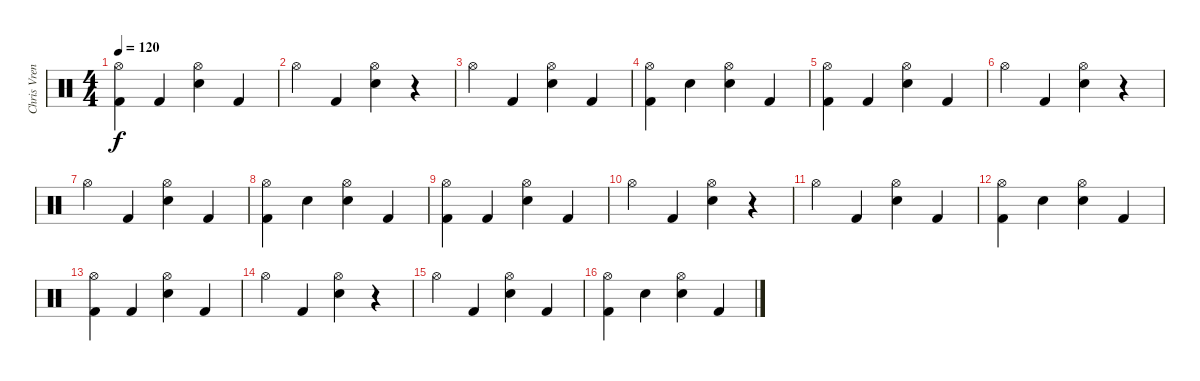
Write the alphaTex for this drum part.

\track ("Chris Vrenna" "Chris Vren") {instrument percussion}
\staff {score}
\articulation defaults
\ts (4 4)
\tempo 120
\clef neutral
\ks c
("Hi-Hat (open)" "Kick (hit) 2").4{dy f} "Kick (hit) 2".4 ("Hi-Hat (open)" "Snare (hit) 2").4 "Kick (hit) 2".4 |
"Hi-Hat (open)".4 "Kick (hit) 2".4 ("Hi-Hat (open)" "Snare (hit) 2").4 r.4 |
"Hi-Hat (open)".4 "Kick (hit) 2".4 ("Hi-Hat (open)" "Snare (hit) 2").4 "Kick (hit) 2".4 |
("Hi-Hat (open)" "Kick (hit) 2").4 "Snare (hit) 2".4 ("Hi-Hat (open)" "Electric Snare (hit)").4 "Kick (hit) 2".4 |
("Hi-Hat (open)" "Kick (hit) 2").4 "Kick (hit) 2".4 ("Hi-Hat (open)" "Snare (hit) 2").4 "Kick (hit) 2".4 |
"Hi-Hat (open)".4 "Kick (hit) 2".4 ("Hi-Hat (open)" "Snare (hit) 2").4 r.4 |
"Hi-Hat (open)".4 "Kick (hit) 2".4 ("Hi-Hat (open)" "Snare (hit) 2").4 "Kick (hit) 2".4 |
("Hi-Hat (open)" "Kick (hit) 2").4 "Snare (hit) 2".4 ("Hi-Hat (open)" "Electric Snare (hit)").4 "Kick (hit) 2".4 |
("Hi-Hat (open)" "Kick (hit) 2").4 "Kick (hit) 2".4 ("Hi-Hat (open)" "Snare (hit) 2").4 "Kick (hit) 2".4 |
"Hi-Hat (open)".4 "Kick (hit) 2".4 ("Hi-Hat (open)" "Snare (hit) 2").4 r.4 |
"Hi-Hat (open)".4 "Kick (hit) 2".4 ("Hi-Hat (open)" "Snare (hit) 2").4 "Kick (hit) 2".4 |
("Hi-Hat (open)" "Kick (hit) 2").4 "Snare (hit) 2".4 ("Hi-Hat (open)" "Electric Snare (hit)").4 "Kick (hit) 2".4 |
("Hi-Hat (open)" "Kick (hit) 2").4 "Kick (hit) 2".4 ("Hi-Hat (open)" "Snare (hit) 2").4 "Kick (hit) 2".4 |
"Hi-Hat (open)".4 "Kick (hit) 2".4 ("Hi-Hat (open)" "Snare (hit) 2").4 r.4 |
"Hi-Hat (open)".4 "Kick (hit) 2".4 ("Hi-Hat (open)" "Snare (hit) 2").4 "Kick (hit) 2".4 |
("Hi-Hat (open)" "Kick (hit) 2").4 "Snare (hit) 2".4 ("Hi-Hat (open)" "Electric Snare (hit)").4 "Kick (hit) 2".4
